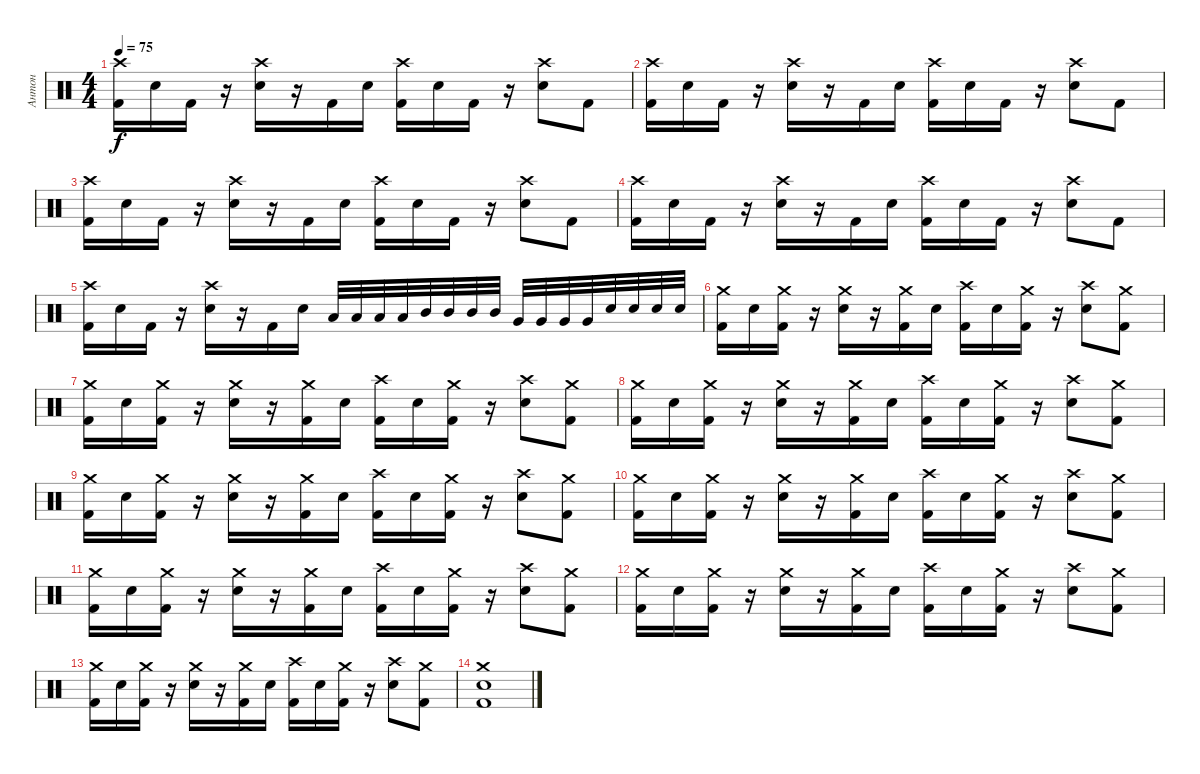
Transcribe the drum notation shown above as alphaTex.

\track ("Антон" "Антон") {instrument percussion}
\staff {score}
\articulation defaults
\ts (4 4)
\tempo 75
\clef neutral
\ks c
("Crash high (hit)" "Kick (hit) 2").16{dy f} "Electric Snare (hit)".16 "Kick (hit) 2".16 r.16 ("Crash high (hit)" "Electric Snare (hit)").16 r.16 "Kick (hit) 2".16 "Electric Snare (hit)".16 ("Crash high (hit)" "Kick (hit) 2").16 "Electric Snare (hit)".16 "Kick (hit) 2".16 r.16 ("Crash high (hit)" "Electric Snare (hit)").8 "Kick (hit) 2".8 |
("Crash high (hit)" "Kick (hit) 2").16 "Electric Snare (hit)".16 "Kick (hit) 2".16 r.16 ("Crash high (hit)" "Electric Snare (hit)").16 r.16 "Kick (hit) 2".16 "Electric Snare (hit)".16 ("Crash high (hit)" "Kick (hit) 2").16 "Electric Snare (hit)".16 "Kick (hit) 2".16 r.16 ("Crash high (hit)" "Electric Snare (hit)").8 "Kick (hit) 2".8 |
("Crash high (hit)" "Kick (hit) 2").16 "Electric Snare (hit)".16 "Kick (hit) 2".16 r.16 ("Crash high (hit)" "Electric Snare (hit)").16 r.16 "Kick (hit) 2".16 "Electric Snare (hit)".16 ("Crash high (hit)" "Kick (hit) 2").16 "Electric Snare (hit)".16 "Kick (hit) 2".16 r.16 ("Crash high (hit)" "Electric Snare (hit)").8 "Kick (hit) 2".8 |
("Crash high (hit)" "Kick (hit) 2").16 "Electric Snare (hit)".16 "Kick (hit) 2".16 r.16 ("Crash high (hit)" "Electric Snare (hit)").16 r.16 "Kick (hit) 2".16 "Electric Snare (hit)".16 ("Crash high (hit)" "Kick (hit) 2").16 "Electric Snare (hit)".16 "Kick (hit) 2".16 r.16 ("Crash high (hit)" "Electric Snare (hit)").8 "Kick (hit) 2".8 |
("Crash high (hit)" "Kick (hit) 2").16 "Electric Snare (hit)".16 "Kick (hit) 2".16 r.16 ("Crash high (hit)" "Electric Snare (hit)").16 r.16 "Kick (hit) 2".16 "Electric Snare (hit)".16 "Low Tom (hit)".32 "Low Tom (hit)".32 "Low Tom (hit)".32 "Low Tom (hit)".32 "Mid Tom (hit)".32 "Mid Tom (hit)".32 "Mid Tom (hit)".32 "Mid Tom (hit)".32 "Very Low Tom (hit)".32 "Very Low Tom (hit)".32 "Very Low Tom (hit)".32 "Very Low Tom (hit)".32 "Electric Snare (hit)".32 "Electric Snare (hit)".32 "Electric Snare (hit)".32 "Electric Snare (hit)".32 |
("Crash medium (hit)" "Kick (hit) 2").16 "Electric Snare (hit)".16 ("Crash medium (hit)" "Kick (hit) 2").16 r.16 ("Crash medium (hit)" "Electric Snare (hit)").16 r.16 ("Crash medium (hit)" "Kick (hit) 2").16 "Electric Snare (hit)".16 ("Crash high (hit)" "Kick (hit) 2").16 "Electric Snare (hit)".16 ("Crash medium (hit)" "Kick (hit) 2").16 r.16 ("Crash high (hit)" "Electric Snare (hit)").8 ("Crash medium (hit)" "Kick (hit) 2").8 |
("Crash medium (hit)" "Kick (hit) 2").16 "Electric Snare (hit)".16 ("Crash medium (hit)" "Kick (hit) 2").16 r.16 ("Crash medium (hit)" "Electric Snare (hit)").16 r.16 ("Crash medium (hit)" "Kick (hit) 2").16 "Electric Snare (hit)".16 ("Crash high (hit)" "Kick (hit) 2").16 "Electric Snare (hit)".16 ("Crash medium (hit)" "Kick (hit) 2").16 r.16 ("Crash high (hit)" "Electric Snare (hit)").8 ("Crash medium (hit)" "Kick (hit) 2").8 |
("Crash medium (hit)" "Kick (hit) 2").16 "Electric Snare (hit)".16 ("Crash medium (hit)" "Kick (hit) 2").16 r.16 ("Crash medium (hit)" "Electric Snare (hit)").16 r.16 ("Crash medium (hit)" "Kick (hit) 2").16 "Electric Snare (hit)".16 ("Crash high (hit)" "Kick (hit) 2").16 "Electric Snare (hit)".16 ("Crash medium (hit)" "Kick (hit) 2").16 r.16 ("Crash high (hit)" "Electric Snare (hit)").8 ("Crash medium (hit)" "Kick (hit) 2").8 |
("Crash medium (hit)" "Kick (hit) 2").16 "Electric Snare (hit)".16 ("Crash medium (hit)" "Kick (hit) 2").16 r.16 ("Crash medium (hit)" "Electric Snare (hit)").16 r.16 ("Crash medium (hit)" "Kick (hit) 2").16 "Electric Snare (hit)".16 ("Crash high (hit)" "Kick (hit) 2").16 "Electric Snare (hit)".16 ("Crash medium (hit)" "Kick (hit) 2").16 r.16 ("Crash high (hit)" "Electric Snare (hit)").8 ("Crash medium (hit)" "Kick (hit) 2").8 |
("Crash medium (hit)" "Kick (hit) 2").16 "Electric Snare (hit)".16 ("Crash medium (hit)" "Kick (hit) 2").16 r.16 ("Crash medium (hit)" "Electric Snare (hit)").16 r.16 ("Crash medium (hit)" "Kick (hit) 2").16 "Electric Snare (hit)".16 ("Crash high (hit)" "Kick (hit) 2").16 "Electric Snare (hit)".16 ("Crash medium (hit)" "Kick (hit) 2").16 r.16 ("Crash high (hit)" "Electric Snare (hit)").8 ("Crash medium (hit)" "Kick (hit) 2").8 |
("Crash medium (hit)" "Kick (hit) 2").16 "Electric Snare (hit)".16 ("Crash medium (hit)" "Kick (hit) 2").16 r.16 ("Crash medium (hit)" "Electric Snare (hit)").16 r.16 ("Crash medium (hit)" "Kick (hit) 2").16 "Electric Snare (hit)".16 ("Crash high (hit)" "Kick (hit) 2").16 "Electric Snare (hit)".16 ("Crash medium (hit)" "Kick (hit) 2").16 r.16 ("Crash high (hit)" "Electric Snare (hit)").8 ("Crash medium (hit)" "Kick (hit) 2").8 |
("Crash medium (hit)" "Kick (hit) 2").16 "Electric Snare (hit)".16 ("Crash medium (hit)" "Kick (hit) 2").16 r.16 ("Crash medium (hit)" "Electric Snare (hit)").16 r.16 ("Crash medium (hit)" "Kick (hit) 2").16 "Electric Snare (hit)".16 ("Crash high (hit)" "Kick (hit) 2").16 "Electric Snare (hit)".16 ("Crash medium (hit)" "Kick (hit) 2").16 r.16 ("Crash high (hit)" "Electric Snare (hit)").8 ("Crash medium (hit)" "Kick (hit) 2").8 |
("Crash medium (hit)" "Kick (hit) 2").16 "Electric Snare (hit)".16 ("Crash medium (hit)" "Kick (hit) 2").16 r.16 ("Crash medium (hit)" "Electric Snare (hit)").16 r.16 ("Crash medium (hit)" "Kick (hit) 2").16 "Electric Snare (hit)".16 ("Crash high (hit)" "Kick (hit) 2").16 "Electric Snare (hit)".16 ("Crash medium (hit)" "Kick (hit) 2").16 r.16 ("Crash high (hit)" "Electric Snare (hit)").8 ("Crash medium (hit)" "Kick (hit) 2").8 |
("Crash medium (hit)" "Electric Snare (hit)" "Kick (hit) 2").1
